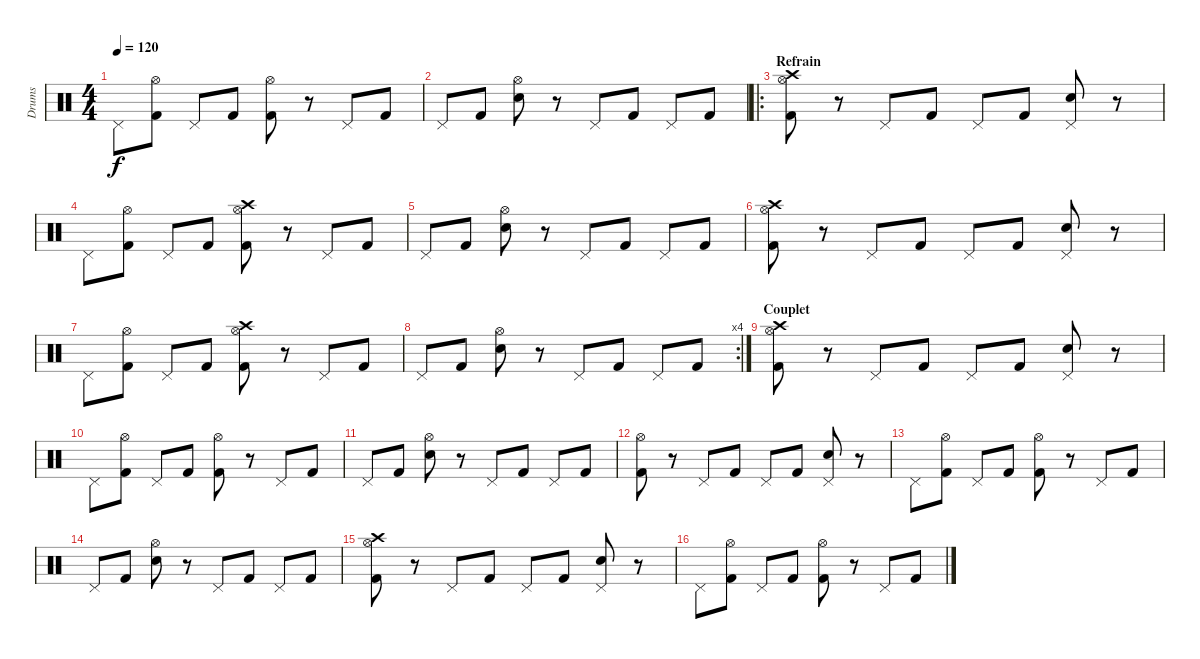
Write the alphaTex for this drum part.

\track ("Drums" "Drums") {instrument percussion}
\staff {score}
\articulation defaults
\ts (4 4)
\tempo 120
\clef neutral
\ks c "Pedal Hi-Hat (hit)".8{dy f}
("Hi-Hat (open)" "Kick (hit) 2").8 "Pedal Hi-Hat (hit)".8 "Kick (hit) 2".8 ("Hi-Hat (open)" "Kick (hit) 2").8 r.8 "Pedal Hi-Hat (hit)".8 "Kick (hit) 2".8 |
"Pedal Hi-Hat (hit)".8 "Kick (hit) 2".8 ("Hi-Hat (open)" "Snare (hit) 2").8 r.8 "Pedal Hi-Hat (hit)".8 "Kick (hit) 2".8 "Pedal Hi-Hat (hit)".8 "Kick (hit) 2".8 |
\ro
\section ("" "Refrain")
("Crash high (hit)" "Hi-Hat (open)" "Kick (hit) 2").8 r.8 "Pedal Hi-Hat (hit)".8 "Kick (hit) 2".8 "Pedal Hi-Hat (hit)".8 "Kick (hit) 2".8 ("Pedal Hi-Hat (hit)" "Snare (hit) 2").8 r.8 |
"Pedal Hi-Hat (hit)".8 ("Hi-Hat (open)" "Kick (hit) 2").8 "Pedal Hi-Hat (hit)".8 "Kick (hit) 2".8 ("Crash high (hit)" "Hi-Hat (open)" "Kick (hit) 2").8 r.8 "Pedal Hi-Hat (hit)".8 "Kick (hit) 2".8 |
"Pedal Hi-Hat (hit)".8 "Kick (hit) 2".8 ("Hi-Hat (open)" "Snare (hit) 2").8 r.8 "Pedal Hi-Hat (hit)".8 "Kick (hit) 2".8 "Pedal Hi-Hat (hit)".8 "Kick (hit) 2".8 |
("Crash high (hit)" "Hi-Hat (open)" "Kick (hit) 2").8 r.8 "Pedal Hi-Hat (hit)".8 "Kick (hit) 2".8 "Pedal Hi-Hat (hit)".8 "Kick (hit) 2".8 ("Pedal Hi-Hat (hit)" "Snare (hit) 2").8 r.8 |
"Pedal Hi-Hat (hit)".8 ("Hi-Hat (open)" "Kick (hit) 2").8 "Pedal Hi-Hat (hit)".8 "Kick (hit) 2".8 ("Crash high (hit)" "Hi-Hat (open)" "Kick (hit) 2").8 r.8 "Pedal Hi-Hat (hit)".8 "Kick (hit) 2".8 |
\rc 4 "Pedal Hi-Hat (hit)".8 "Kick (hit) 2".8
("Hi-Hat (open)" "Snare (hit) 2").8 r.8 "Pedal Hi-Hat (hit)".8 "Kick (hit) 2".8 "Pedal Hi-Hat (hit)".8 "Kick (hit) 2".8 |
\section ("" "Couplet")
("Crash high (hit)" "Hi-Hat (open)" "Kick (hit) 2").8 r.8 "Pedal Hi-Hat (hit)".8 "Kick (hit) 2".8 "Pedal Hi-Hat (hit)".8 "Kick (hit) 2".8 ("Pedal Hi-Hat (hit)" "Snare (hit) 2").8 r.8 |
"Pedal Hi-Hat (hit)".8 ("Hi-Hat (open)" "Kick (hit) 2").8 "Pedal Hi-Hat (hit)".8 "Kick (hit) 2".8 ("Hi-Hat (open)" "Kick (hit) 2").8 r.8 "Pedal Hi-Hat (hit)".8 "Kick (hit) 2".8 |
"Pedal Hi-Hat (hit)".8 "Kick (hit) 2".8 ("Hi-Hat (open)" "Snare (hit) 2").8 r.8 "Pedal Hi-Hat (hit)".8 "Kick (hit) 2".8 "Pedal Hi-Hat (hit)".8 "Kick (hit) 2".8 |
("Hi-Hat (open)" "Kick (hit) 2").8 r.8 "Pedal Hi-Hat (hit)".8 "Kick (hit) 2".8 "Pedal Hi-Hat (hit)".8 "Kick (hit) 2".8 ("Pedal Hi-Hat (hit)" "Snare (hit) 2").8 r.8 |
"Pedal Hi-Hat (hit)".8 ("Hi-Hat (open)" "Kick (hit) 2").8 "Pedal Hi-Hat (hit)".8 "Kick (hit) 2".8 ("Hi-Hat (open)" "Kick (hit) 2").8 r.8 "Pedal Hi-Hat (hit)".8 "Kick (hit) 2".8 |
"Pedal Hi-Hat (hit)".8 "Kick (hit) 2".8 ("Hi-Hat (open)" "Snare (hit) 2").8 r.8 "Pedal Hi-Hat (hit)".8 "Kick (hit) 2".8 "Pedal Hi-Hat (hit)".8 "Kick (hit) 2".8 |
("Crash high (hit)" "Hi-Hat (open)" "Kick (hit) 2").8 r.8 "Pedal Hi-Hat (hit)".8 "Kick (hit) 2".8 "Pedal Hi-Hat (hit)".8 "Kick (hit) 2".8 ("Pedal Hi-Hat (hit)" "Snare (hit) 2").8 r.8 |
"Pedal Hi-Hat (hit)".8 ("Hi-Hat (open)" "Kick (hit) 2").8 "Pedal Hi-Hat (hit)".8 "Kick (hit) 2".8 ("Hi-Hat (open)" "Kick (hit) 2").8 r.8 "Pedal Hi-Hat (hit)".8 "Kick (hit) 2".8
